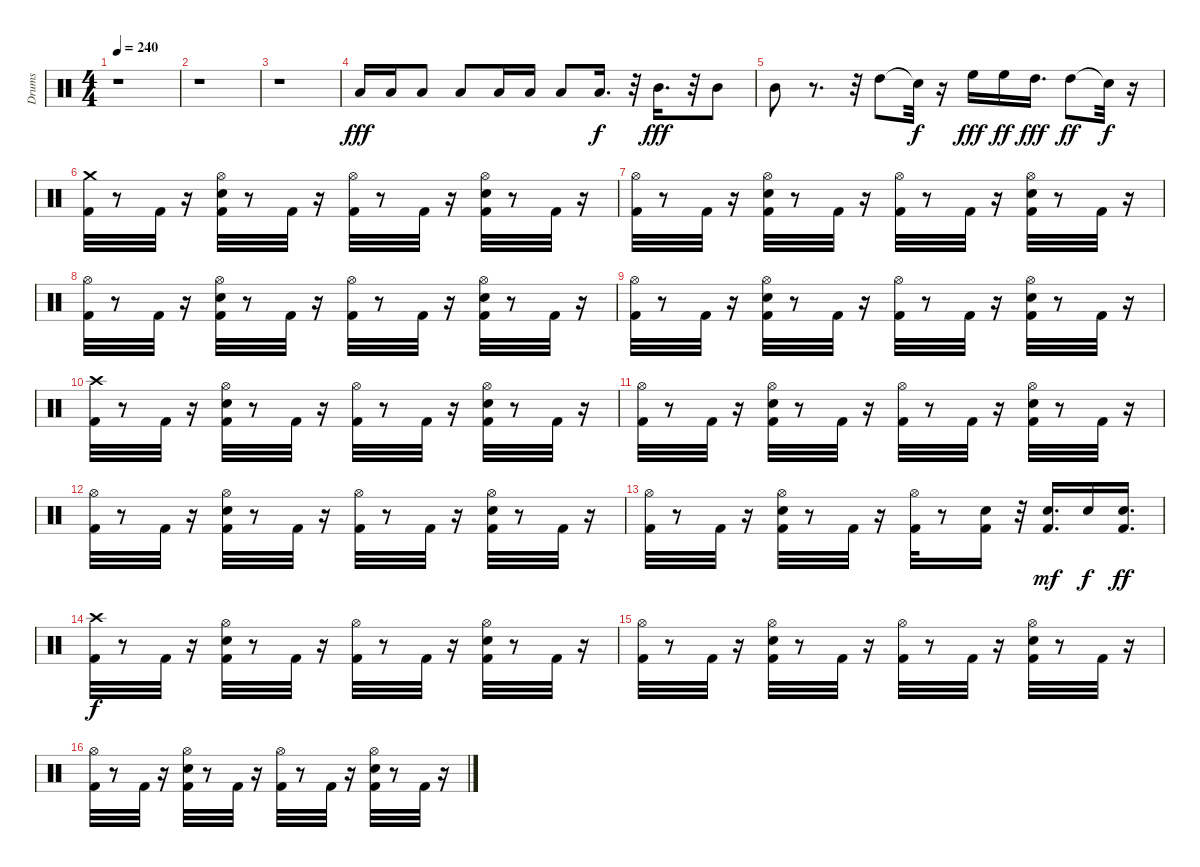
\track ("Drums" "Drums") {instrument percussion}
\staff {score}
\articulation defaults
\ts (4 4)
\tempo 240
\clef neutral
\ks c
r.1{dy f} |
r.1 |
r.1 |
"Low Floor Tom (hit)".16{dy fff} "Low Tom (hit)".16 "Low Tom (hit)".8 "Low Tom (hit)".8 "Low Floor Tom (hit)".16 "Low Tom (hit)".16 "Low Tom (hit)".8 "Low Tom (hit)".16{d dy f} r.32 "Mid Tom (hit)".16{d dy fff} r.32 "Mid Tom (hit)".8 |
"Mid Tom (hit)".8 r.8{d} r.32 "High Tom (hit)".8 "Snare (hit)"{t}.32{dy f} r.16 "High Floor Tom (hit)".16{dy fff} "High Floor Tom (hit)".16{dy ff} "High Tom (hit)".16{d dy fff} "High Tom (hit)".8{dy ff} "Snare (hit)"{t}.32{dy f} r.16 |
("Kick (hit) 2" "Crash medium (hit)").32 r.8 "Kick (hit) 2".32 r.16 ("Electric Snare (hit)" "Kick (hit) 2" "Hi-Hat (open)").32 r.8 "Kick (hit) 2".32 r.16 ("Kick (hit) 2" "Hi-Hat (open)").32 r.8 "Kick (hit) 2".32 r.16 ("Electric Snare (hit)" "Hi-Hat (open)" "Kick (hit) 2").32 r.8 "Kick (hit) 2".32 r.16 |
("Kick (hit) 2" "Hi-Hat (open)").32 r.8 "Kick (hit) 2".32 r.16 ("Kick (hit) 2" "Hi-Hat (open)" "Electric Snare (hit)").32 r.8 "Kick (hit) 2".32 r.16 ("Hi-Hat (open)" "Kick (hit) 2").32 r.8 "Kick (hit) 2".32 r.16 ("Electric Snare (hit)" "Kick (hit) 2" "Hi-Hat (open)").32 r.8 "Kick (hit) 2".32 r.16 |
("Kick (hit) 2" "Hi-Hat (open)").32 r.8 "Kick (hit) 2".32 r.16 ("Electric Snare (hit)" "Kick (hit) 2" "Hi-Hat (open)").32 r.8 "Kick (hit) 2".32 r.16 ("Hi-Hat (open)" "Kick (hit) 2").32 r.8 "Kick (hit) 2".32 r.16 ("Hi-Hat (open)" "Electric Snare (hit)" "Kick (hit) 2").32 r.8 "Kick (hit) 2".32 r.16 |
("Kick (hit) 2" "Hi-Hat (open)").32 r.8 "Kick (hit) 2".32 r.16 ("Electric Snare (hit)" "Hi-Hat (open)" "Kick (hit) 2").32 r.8 "Kick (hit) 2".32 r.16 ("Hi-Hat (open)" "Kick (hit) 2").32 r.8 "Kick (hit) 2".32 r.16 ("Hi-Hat (open)" "Electric Snare (hit)" "Kick (hit) 2").32 r.8 "Kick (hit) 2".32 r.16 |
("Kick (hit) 2" "Crash high (hit)").32 r.8 "Kick (hit) 2".32 r.16 ("Hi-Hat (open)" "Kick (hit) 2" "Electric Snare (hit)").32 r.8 "Kick (hit) 2".32 r.16 ("Hi-Hat (open)" "Kick (hit) 2").32 r.8 "Kick (hit) 2".32 r.16 ("Hi-Hat (open)" "Electric Snare (hit)" "Kick (hit) 2").32 r.8 "Kick (hit) 2".32 r.16 |
("Kick (hit) 2" "Hi-Hat (open)").32 r.8 "Kick (hit) 2".32 r.16 ("Kick (hit) 2" "Electric Snare (hit)" "Hi-Hat (open)").32 r.8 "Kick (hit) 2".32 r.16 ("Hi-Hat (open)" "Kick (hit) 2").32 r.8 "Kick (hit) 2".32 r.16 ("Hi-Hat (open)" "Electric Snare (hit)" "Kick (hit) 2").32 r.8 "Kick (hit) 2".32 r.16 |
("Kick (hit) 2" "Hi-Hat (open)").32 r.8 "Kick (hit) 2".32 r.16 ("Kick (hit) 2" "Electric Snare (hit)" "Hi-Hat (open)").32 r.8 "Kick (hit) 2".32 r.16 ("Hi-Hat (open)" "Kick (hit) 2").32 r.8 "Kick (hit) 2".32 r.16 ("Hi-Hat (open)" "Electric Snare (hit)" "Kick (hit) 2").32 r.8 "Kick (hit) 2".32 r.16 |
("Kick (hit) 2" "Hi-Hat (open)").32 r.8 "Kick (hit) 2".32 r.16 ("Kick (hit) 2" "Electric Snare (hit)" "Hi-Hat (open)").32 r.8 "Kick (hit) 2".32 r.16 ("Kick (hit) 2" "Hi-Hat (open)").32 r.8 ("Electric Snare (hit)" "Kick (hit) 2").16 r.32 ("Electric Snare (hit)" "Kick (hit) 2").16{d dy mf} "Electric Snare (hit)".16{dy f} ("Kick (hit) 2" "Electric Snare (hit)").16{d dy ff} |
("Crash high (hit)" "Kick (hit) 2").32{dy f} r.8 "Kick (hit) 2".32 r.16 ("Electric Snare (hit)" "Kick (hit) 2" "Hi-Hat (open)").32 r.8 "Kick (hit) 2".32 r.16 ("Hi-Hat (open)" "Kick (hit) 2").32 r.8 "Kick (hit) 2".32 r.16 ("Electric Snare (hit)" "Kick (hit) 2" "Hi-Hat (open)").32 r.8 "Kick (hit) 2".32 r.16 |
("Hi-Hat (open)" "Kick (hit) 2").32 r.8 "Kick (hit) 2".32 r.16 ("Hi-Hat (open)" "Kick (hit) 2" "Electric Snare (hit)").32 r.8 "Kick (hit) 2".32 r.16 ("Hi-Hat (open)" "Kick (hit) 2").32 r.8 "Kick (hit) 2".32 r.16 ("Hi-Hat (open)" "Electric Snare (hit)" "Kick (hit) 2").32 r.8 "Kick (hit) 2".32 r.16 |
("Hi-Hat (open)" "Kick (hit) 2").32 r.8 "Kick (hit) 2".32 r.16 ("Hi-Hat (open)" "Electric Snare (hit)" "Kick (hit) 2").32 r.8 "Kick (hit) 2".32 r.16 ("Kick (hit) 2" "Hi-Hat (open)").32 r.8 "Kick (hit) 2".32 r.16 ("Hi-Hat (open)" "Kick (hit) 2" "Electric Snare (hit)").32 r.8 "Kick (hit) 2".32 r.16
